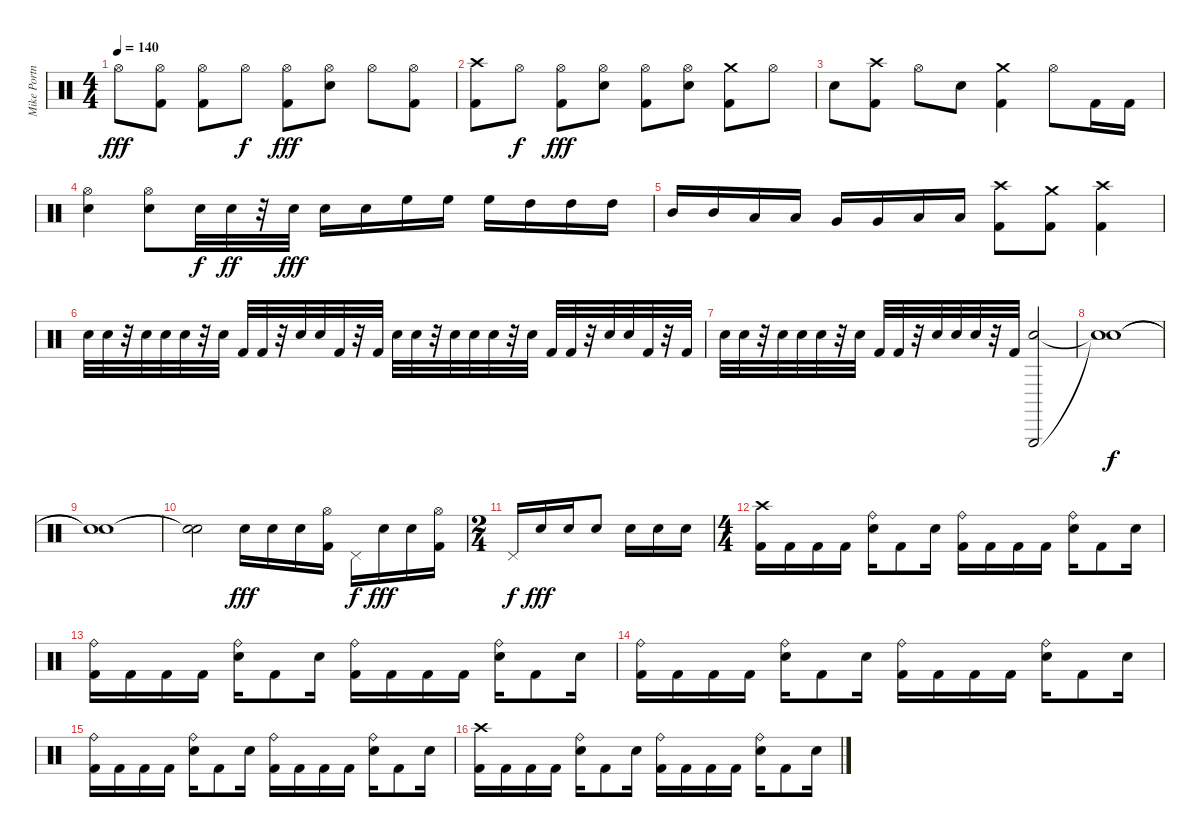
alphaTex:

\track ("Mike Portnoy" "Mike Portn") {instrument percussion}
\staff {score}
\articulation defaults
\ts (4 4)
\tempo 140
\clef neutral
\ks c "Hi-Hat (open)".8{dy fff}
("Hi-Hat (open)" "Kick (hit) 2").8 ("Hi-Hat (open)" "Kick (hit) 2").8 "Hi-Hat (open)".8{dy f} ("Hi-Hat (open)" "Kick (hit) 2").8{dy fff} ("Hi-Hat (open)" "Snare (hit) 2").8 "Hi-Hat (open)".8 ("Hi-Hat (open)" "Kick (hit) 2").8 |
("Crash high (hit)" "Kick (hit) 2").8 "Hi-Hat (open)".8{dy f} ("Hi-Hat (open)" "Kick (hit) 2").8{dy fff} ("Hi-Hat (open)" "Snare (hit) 2").8 ("Hi-Hat (open)" "Kick (hit) 2").8 ("Hi-Hat (open)" "Snare (hit) 2").8 ("Crash medium (hit)" "Kick (hit) 2").8 "Hi-Hat (open)".8 |
"Snare (hit) 2".8 ("Crash high (hit)" "Kick (hit) 2").8 "Hi-Hat (open)".8 "Snare (hit) 2".8 ("Crash medium (hit)" "Kick (hit) 2").4 "Hi-Hat (open)".8 "Kick (hit) 2".16 "Kick (hit) 2".16 |
("Hi-Hat (open)" "Snare (hit) 2").4 ("Hi-Hat (open)" "Snare (hit) 2").8 "Snare (hit) 2".32{dy f} "Snare (hit) 2".32{dy ff} r.32 "Snare (hit) 2".32{dy fff} "Snare (hit) 2".16 "Snare (hit) 2".16 "High Floor Tom (hit)".16 "High Floor Tom (hit)".16 "High Floor Tom (hit)".16 "High Tom (hit)".16 "High Tom (hit)".16 "High Tom (hit)".16 |
"Mid Tom (hit)".16 "Mid Tom (hit)".16 "Low Tom (hit)".16 "Low Tom (hit)".16 "Very Low Tom (hit)".16 "Very Low Tom (hit)".16 "Low Floor Tom (hit)".16 "Low Floor Tom (hit)".16 ("Crash high (hit)" "Kick (hit) 2").8 ("Crash medium (hit)" "Kick (hit) 2").8 ("Crash high (hit)" "Kick (hit) 2").4 |
"Snare (hit) 2".32 "Snare (hit) 2".32 r.32 "Snare (hit) 2".32 "Snare (hit) 2".32 "Snare (hit) 2".32 r.32 "Snare (hit) 2".32 "Kick (hit) 2".32 "Kick (hit) 2".32 r.32 "Snare (hit) 2".32 "Snare (hit) 2".32 "Kick (hit) 2".32 r.32 "Kick (hit) 2".32 "Snare (hit) 2".32 "Snare (hit) 2".32 r.32 "Snare (hit) 2".32 "Snare (hit) 2".32 "Snare (hit) 2".32 r.32 "Snare (hit) 2".32 "Kick (hit) 2".32 "Kick (hit) 2".32 r.32 "Snare (hit) 2".32 "Snare (hit) 2".32 "Kick (hit) 2".32 r.32 "Kick (hit) 2".32 |
"Snare (hit) 2".32 "Snare (hit) 2".32 r.32 "Snare (hit) 2".32 "Snare (hit) 2".32 "Snare (hit) 2".32 r.32 "Snare (hit) 2".32 "Kick (hit) 2".32 "Kick (hit) 2".32 r.32 "Snare (hit) 2".32 "Snare (hit) 2".32 "Snare (hit) 2".32 r.32 "Kick (hit) 2".32 ("Triangle (hit)" "Snare (hit) 2").2 |
("Snare (hit)"{t} "Snare (hit)"{t}).1{dy f} |
("Snare (hit)"{t} "Snare (hit)"{t}).1 |
("Snare (hit)"{t} "Snare (hit)"{t}).2 "Snare (hit) 2".16{dy fff} "Snare (hit) 2".16 "Snare (hit) 2".16 ("Hi-Hat (open)" "Kick (hit) 2").16 "Pedal Hi-Hat (hit)".16{dy f} "Snare (hit) 2".16{dy fff} "Snare (hit) 2".16 ("Hi-Hat (open)" "Kick (hit) 2").16 |
\ts (2 4)
"Pedal Hi-Hat (hit)".16{dy f} "Snare (hit) 2".16{dy fff} "Snare (hit) 2".16 "Snare (hit) 2".8 "Snare (hit) 2".16 "Snare (hit) 2".16 "Snare (hit) 2".16 |
\ts (4 4)
("Crash high (hit)" "Kick (hit) 2").16 "Kick (hit) 2".16 "Kick (hit) 2".16 "Kick (hit) 2".16 ("Ride (bell)" "Snare (hit) 2").16 "Kick (hit) 2".8 "Snare (hit) 2".16 ("Ride (bell)" "Kick (hit) 2").16 "Kick (hit) 2".16 "Kick (hit) 2".16 "Kick (hit) 2".16 ("Ride (bell)" "Snare (hit) 2").16 "Kick (hit) 2".8 "Snare (hit) 2".16 |
("Ride (bell)" "Kick (hit) 2").16 "Kick (hit) 2".16 "Kick (hit) 2".16 "Kick (hit) 2".16 ("Ride (bell)" "Snare (hit) 2").16 "Kick (hit) 2".8 "Snare (hit) 2".16 ("Ride (bell)" "Kick (hit) 2").16 "Kick (hit) 2".16 "Kick (hit) 2".16 "Kick (hit) 2".16 ("Ride (bell)" "Snare (hit) 2").16 "Kick (hit) 2".8 "Snare (hit) 2".16 |
("Ride (bell)" "Kick (hit) 2").16 "Kick (hit) 2".16 "Kick (hit) 2".16 "Kick (hit) 2".16 ("Ride (bell)" "Snare (hit) 2").16 "Kick (hit) 2".8 "Snare (hit) 2".16 ("Ride (bell)" "Kick (hit) 2").16 "Kick (hit) 2".16 "Kick (hit) 2".16 "Kick (hit) 2".16 ("Ride (bell)" "Snare (hit) 2").16 "Kick (hit) 2".8 "Snare (hit) 2".16 |
("Ride (bell)" "Kick (hit) 2").16 "Kick (hit) 2".16 "Kick (hit) 2".16 "Kick (hit) 2".16 ("Ride (bell)" "Snare (hit) 2").16 "Kick (hit) 2".8 "Snare (hit) 2".16 ("Ride (bell)" "Kick (hit) 2").16 "Kick (hit) 2".16 "Kick (hit) 2".16 "Kick (hit) 2".16 ("Ride (bell)" "Snare (hit) 2").16 "Kick (hit) 2".8 "Snare (hit) 2".16 |
("Crash high (hit)" "Kick (hit) 2").16 "Kick (hit) 2".16 "Kick (hit) 2".16 "Kick (hit) 2".16 ("Ride (bell)" "Snare (hit) 2").16 "Kick (hit) 2".8 "Snare (hit) 2".16 ("Ride (bell)" "Kick (hit) 2").16 "Kick (hit) 2".16 "Kick (hit) 2".16 "Kick (hit) 2".16 ("Ride (bell)" "Snare (hit) 2").16 "Kick (hit) 2".8 "Snare (hit) 2".16
